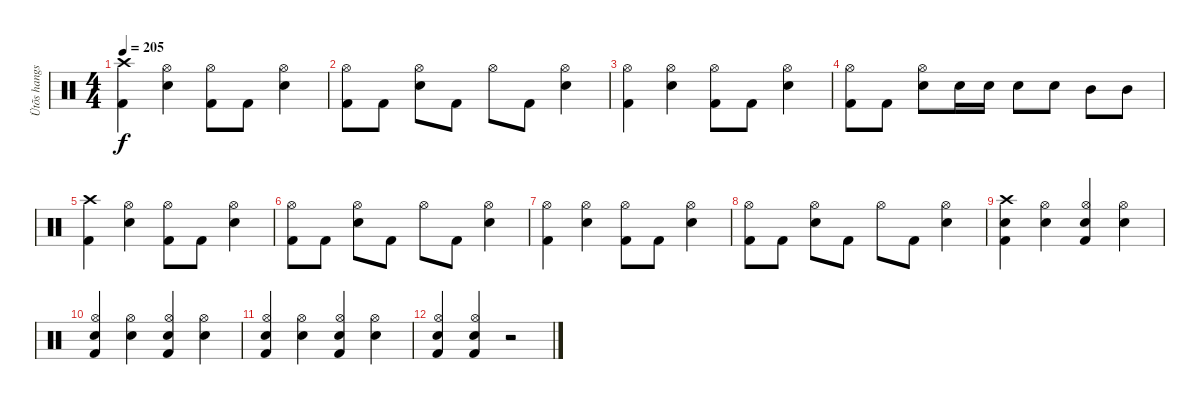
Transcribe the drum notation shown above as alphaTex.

\track ("Ütõs hangszer" "Ütõs hangs") {instrument percussion}
\staff {score}
\articulation defaults
\ts (4 4)
\tempo 205
\clef neutral
\ks c
("Crash high (hit)" "Kick (hit) 2").4{dy f} ("Hi-Hat (open)" "Snare (hit) 2").4 ("Hi-Hat (open)" "Kick (hit) 2").8 "Kick (hit) 2".8 ("Hi-Hat (open)" "Snare (hit) 2").4 |
("Hi-Hat (open)" "Kick (hit) 2").8 "Kick (hit) 2".8 ("Hi-Hat (open)" "Snare (hit) 2").8 "Kick (hit) 2".8 "Hi-Hat (open)".8 "Kick (hit) 2".8 ("Hi-Hat (open)" "Snare (hit) 2").4 |
("Hi-Hat (open)" "Kick (hit) 2").4 ("Hi-Hat (open)" "Snare (hit) 2").4 ("Hi-Hat (open)" "Kick (hit) 2").8 "Kick (hit) 2".8 ("Hi-Hat (open)" "Snare (hit) 2").4 |
("Hi-Hat (open)" "Kick (hit) 2").8 "Kick (hit) 2".8 ("Hi-Hat (open)" "Snare (hit) 2").8 "Snare (hit) 2".16 "Snare (hit) 2".16 "Snare (hit) 2".8 "Snare (hit) 2".8 "Mid Tom (hit)".8 "Mid Tom (hit)".8 |
("Crash high (hit)" "Kick (hit) 2").4 ("Hi-Hat (open)" "Snare (hit) 2").4 ("Hi-Hat (open)" "Kick (hit) 2").8 "Kick (hit) 2".8 ("Hi-Hat (open)" "Snare (hit) 2").4 |
("Hi-Hat (open)" "Kick (hit) 2").8 "Kick (hit) 2".8 ("Hi-Hat (open)" "Snare (hit) 2").8 "Kick (hit) 2".8 "Hi-Hat (open)".8 "Kick (hit) 2".8 ("Hi-Hat (open)" "Snare (hit) 2").4 |
("Hi-Hat (open)" "Kick (hit) 2").4 ("Hi-Hat (open)" "Snare (hit) 2").4 ("Hi-Hat (open)" "Kick (hit) 2").8 "Kick (hit) 2".8 ("Hi-Hat (open)" "Snare (hit) 2").4 |
("Hi-Hat (open)" "Kick (hit) 2").8 "Kick (hit) 2".8 ("Hi-Hat (open)" "Snare (hit) 2").8 "Kick (hit) 2".8 "Hi-Hat (open)".8 "Kick (hit) 2".8 ("Hi-Hat (open)" "Snare (hit) 2").4 |
("Crash high (hit)" "Snare (hit) 2" "Kick (hit) 2").4 ("Hi-Hat (open)" "Snare (hit) 2").4 ("Hi-Hat (open)" "Snare (hit) 2" "Kick (hit) 2").4 ("Hi-Hat (open)" "Snare (hit) 2").4 |
("Hi-Hat (open)" "Snare (hit) 2" "Kick (hit) 2").4 ("Hi-Hat (open)" "Snare (hit) 2").4 ("Hi-Hat (open)" "Snare (hit) 2" "Kick (hit) 2").4 ("Hi-Hat (open)" "Snare (hit) 2").4 |
("Hi-Hat (open)" "Snare (hit) 2" "Kick (hit) 2").4 ("Hi-Hat (open)" "Snare (hit) 2").4 ("Hi-Hat (open)" "Snare (hit) 2" "Kick (hit) 2").4 ("Hi-Hat (open)" "Snare (hit) 2").4 |
("Snare (hit) 2" "Kick (hit) 2" "Hi-Hat (open)").4 ("Kick (hit) 2" "Snare (hit) 2" "Hi-Hat (open)").4 r.2
